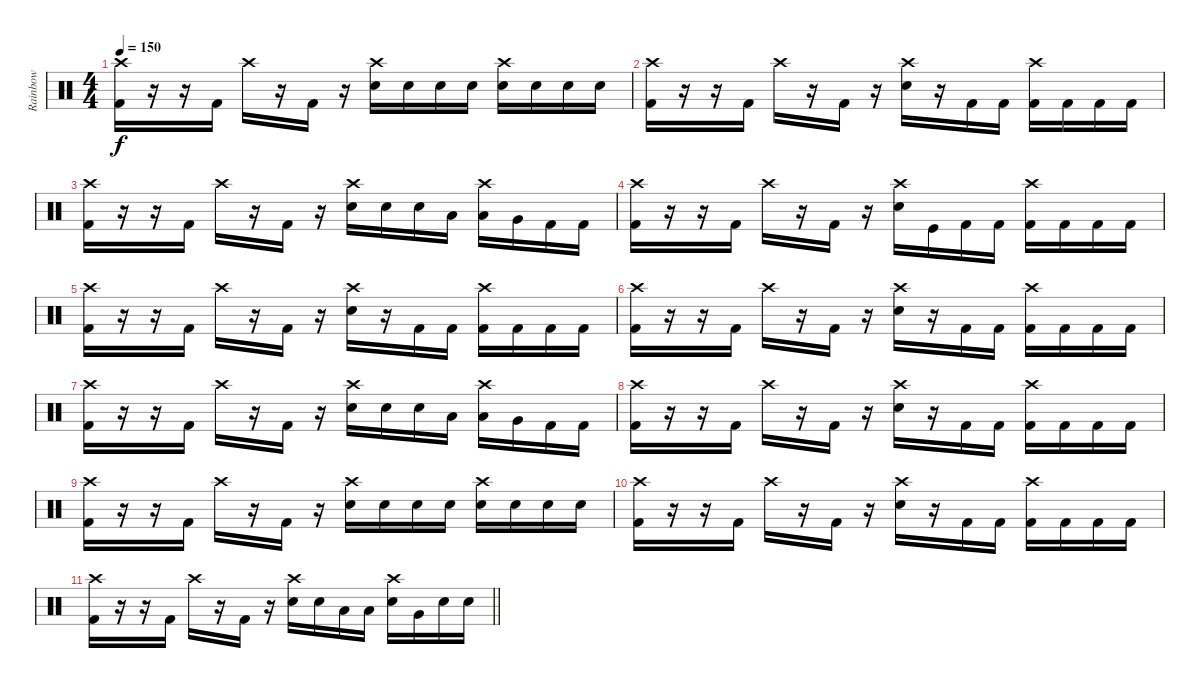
\track ("Rainbow" "Rainbow") {instrument percussion}
\staff {score}
\articulation defaults
\ts (4 4)
\tempo 150
\clef neutral
\ks c
("Crash high (hit)" "Kick (hit) 2").16{dy f} r.16 r.16 "Kick (hit) 2".16 "Crash high (hit)".16 r.16 "Kick (hit) 2".16 r.16 ("Crash high (hit)" "Electric Snare (hit)").16 "Electric Snare (hit)".16 "Electric Snare (hit)".16 "Electric Snare (hit)".16 ("Crash high (hit)" "Electric Snare (hit)").16 "Electric Snare (hit)".16 "Electric Snare (hit)".16 "Electric Snare (hit)".16 |
("Crash high (hit)" "Kick (hit) 2").16 r.16 r.16 "Kick (hit) 2".16 "Crash high (hit)".16 r.16 "Kick (hit) 2".16 r.16 ("Crash high (hit)" "Electric Snare (hit)").16 r.16 "Kick (hit) 2".16 "Kick (hit) 2".16 ("Crash high (hit)" "Kick (hit) 2").16 "Kick (hit) 2".16 "Kick (hit) 2".16 "Kick (hit) 2".16 |
("Crash high (hit)" "Kick (hit) 2").16 r.16 r.16 "Kick (hit) 2".16 "Crash high (hit)".16 r.16 "Kick (hit) 2".16 r.16 ("Crash high (hit)" "Electric Snare (hit)").16 "Electric Snare (hit)".16 "Electric Snare (hit)".16 "Low Tom (hit)".16 ("Crash high (hit)" "Low Tom (hit)").16 "Very Low Tom (hit)".16 "Kick (hit) 2".16 "Kick (hit) 2".16 |
("Crash high (hit)" "Kick (hit) 2").16 r.16 r.16 "Kick (hit) 2".16 "Crash high (hit)".16 r.16 "Kick (hit) 2".16 r.16 ("Crash high (hit)" "Electric Snare (hit)").16 "Kick (hit)".16 "Kick (hit) 2".16 "Kick (hit) 2".16 ("Crash high (hit)" "Kick (hit) 2").16 "Kick (hit) 2".16 "Kick (hit) 2".16 "Kick (hit) 2".16 |
("Crash high (hit)" "Kick (hit) 2").16 r.16 r.16 "Kick (hit) 2".16 "Crash high (hit)".16 r.16 "Kick (hit) 2".16 r.16 ("Crash high (hit)" "Electric Snare (hit)").16 r.16 "Kick (hit) 2".16 "Kick (hit) 2".16 ("Crash high (hit)" "Kick (hit) 2").16 "Kick (hit) 2".16 "Kick (hit) 2".16 "Kick (hit) 2".16 |
("Crash high (hit)" "Kick (hit) 2").16 r.16 r.16 "Kick (hit) 2".16 "Crash high (hit)".16 r.16 "Kick (hit) 2".16 r.16 ("Crash high (hit)" "Electric Snare (hit)").16 r.16 "Kick (hit) 2".16 "Kick (hit) 2".16 ("Crash high (hit)" "Kick (hit) 2").16 "Kick (hit) 2".16 "Kick (hit) 2".16 "Kick (hit) 2".16 |
("Crash high (hit)" "Kick (hit) 2").16 r.16 r.16 "Kick (hit) 2".16 "Crash high (hit)".16 r.16 "Kick (hit) 2".16 r.16 ("Crash high (hit)" "Electric Snare (hit)").16 "Electric Snare (hit)".16 "Electric Snare (hit)".16 "Low Tom (hit)".16 ("Crash high (hit)" "Low Tom (hit)").16 "Very Low Tom (hit)".16 "Kick (hit) 2".16 "Kick (hit) 2".16 |
("Crash high (hit)" "Kick (hit) 2").16{volume 0} r.16 r.16 "Kick (hit) 2".16 "Crash high (hit)".16 r.16 "Kick (hit) 2".16 r.16 ("Crash high (hit)" "Electric Snare (hit)").16 r.16 "Kick (hit) 2".16 "Kick (hit) 2".16 ("Crash high (hit)" "Kick (hit) 2").16 "Kick (hit) 2".16 "Kick (hit) 2".16 "Kick (hit) 2".16 |
("Crash high (hit)" "Kick (hit) 2").16 r.16 r.16 "Kick (hit) 2".16 "Crash high (hit)".16 r.16 "Kick (hit) 2".16 r.16 ("Crash high (hit)" "Electric Snare (hit)").16 "Electric Snare (hit)".16 "Electric Snare (hit)".16 "Electric Snare (hit)".16 ("Crash high (hit)" "Electric Snare (hit)").16 "Electric Snare (hit)".16 "Electric Snare (hit)".16 "Electric Snare (hit)".16 |
("Crash high (hit)" "Kick (hit) 2").16 r.16 r.16 "Kick (hit) 2".16 "Crash high (hit)".16 r.16 "Kick (hit) 2".16 r.16 ("Crash high (hit)" "Electric Snare (hit)").16 r.16 "Kick (hit) 2".16 "Kick (hit) 2".16 ("Crash high (hit)" "Kick (hit) 2").16 "Kick (hit) 2".16 "Kick (hit) 2".16 "Kick (hit) 2".16 |
\barLineRight lightlight
("Crash high (hit)" "Kick (hit) 2").16 r.16 r.16 "Kick (hit) 2".16 "Crash high (hit)".16 r.16 "Kick (hit) 2".16 r.16 ("Crash high (hit)" "Electric Snare (hit)").16 "Electric Snare (hit)".16 "Low Tom (hit)".16 "Low Tom (hit)".16 ("Crash high (hit)" "Electric Snare (hit)").16 "Very Low Tom (hit)".16 "Electric Snare (hit)".16 "Electric Snare (hit)".16
